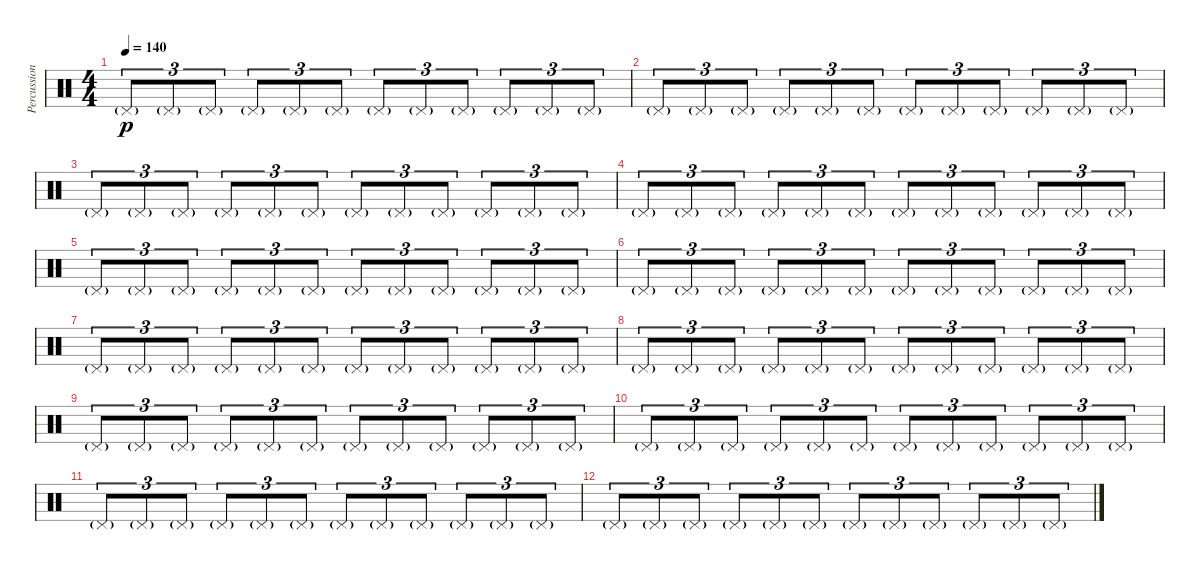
\track ("Percussion" "Percussion") {instrument percussion}
\staff {score}
\articulation defaults
\ts (4 4)
\tempo 140
\clef neutral
\ks c "Pedal Hi-Hat (hit)"{g}.8{tu (3 2) dy p} "Pedal Hi-Hat (hit)"{g}.8{tu (3 2)} "Pedal Hi-Hat (hit)"{g}.8{tu (3 2)} "Pedal Hi-Hat (hit)"{g}.8{tu (3 2)} "Pedal Hi-Hat (hit)"{g}.8{tu (3 2)} "Pedal Hi-Hat (hit)"{g}.8{tu (3 2)} "Pedal Hi-Hat (hit)"{g}.8{tu (3 2)} "Pedal Hi-Hat (hit)"{g}.8{tu (3 2)} "Pedal Hi-Hat (hit)"{g}.8{tu (3 2)} "Pedal Hi-Hat (hit)"{g}.8{tu (3 2)} "Pedal Hi-Hat (hit)"{g}.8{tu (3 2)} "Pedal Hi-Hat (hit)"{g}.8{tu (3 2)}
|
"Pedal Hi-Hat (hit)"{g}.8{tu (3 2)} "Pedal Hi-Hat (hit)"{g}.8{tu (3 2)} "Pedal Hi-Hat (hit)"{g}.8{tu (3 2)} "Pedal Hi-Hat (hit)"{g}.8{tu (3 2)} "Pedal Hi-Hat (hit)"{g}.8{tu (3 2)} "Pedal Hi-Hat (hit)"{g}.8{tu (3 2)} "Pedal Hi-Hat (hit)"{g}.8{tu (3 2)} "Pedal Hi-Hat (hit)"{g}.8{tu (3 2)} "Pedal Hi-Hat (hit)"{g}.8{tu (3 2)} "Pedal Hi-Hat (hit)"{g}.8{tu (3 2)} "Pedal Hi-Hat (hit)"{g}.8{tu (3 2)} "Pedal Hi-Hat (hit)"{g}.8{tu (3 2)} |
"Pedal Hi-Hat (hit)"{g}.8{tu (3 2)} "Pedal Hi-Hat (hit)"{g}.8{tu (3 2)} "Pedal Hi-Hat (hit)"{g}.8{tu (3 2)} "Pedal Hi-Hat (hit)"{g}.8{tu (3 2)} "Pedal Hi-Hat (hit)"{g}.8{tu (3 2)} "Pedal Hi-Hat (hit)"{g}.8{tu (3 2)} "Pedal Hi-Hat (hit)"{g}.8{tu (3 2)} "Pedal Hi-Hat (hit)"{g}.8{tu (3 2)} "Pedal Hi-Hat (hit)"{g}.8{tu (3 2)} "Pedal Hi-Hat (hit)"{g}.8{tu (3 2)} "Pedal Hi-Hat (hit)"{g}.8{tu (3 2)} "Pedal Hi-Hat (hit)"{g}.8{tu (3 2)} |
"Pedal Hi-Hat (hit)"{g}.8{tu (3 2)} "Pedal Hi-Hat (hit)"{g}.8{tu (3 2)} "Pedal Hi-Hat (hit)"{g}.8{tu (3 2)} "Pedal Hi-Hat (hit)"{g}.8{tu (3 2)} "Pedal Hi-Hat (hit)"{g}.8{tu (3 2)} "Pedal Hi-Hat (hit)"{g}.8{tu (3 2)} "Pedal Hi-Hat (hit)"{g}.8{tu (3 2)} "Pedal Hi-Hat (hit)"{g}.8{tu (3 2)} "Pedal Hi-Hat (hit)"{g}.8{tu (3 2)} "Pedal Hi-Hat (hit)"{g}.8{tu (3 2)} "Pedal Hi-Hat (hit)"{g}.8{tu (3 2)} "Pedal Hi-Hat (hit)"{g}.8{tu (3 2)} |
"Pedal Hi-Hat (hit)"{g}.8{tu (3 2)} "Pedal Hi-Hat (hit)"{g}.8{tu (3 2)} "Pedal Hi-Hat (hit)"{g}.8{tu (3 2)} "Pedal Hi-Hat (hit)"{g}.8{tu (3 2)} "Pedal Hi-Hat (hit)"{g}.8{tu (3 2)} "Pedal Hi-Hat (hit)"{g}.8{tu (3 2)} "Pedal Hi-Hat (hit)"{g}.8{tu (3 2)} "Pedal Hi-Hat (hit)"{g}.8{tu (3 2)} "Pedal Hi-Hat (hit)"{g}.8{tu (3 2)} "Pedal Hi-Hat (hit)"{g}.8{tu (3 2)} "Pedal Hi-Hat (hit)"{g}.8{tu (3 2)} "Pedal Hi-Hat (hit)"{g}.8{tu (3 2)} |
"Pedal Hi-Hat (hit)"{g}.8{tu (3 2)} "Pedal Hi-Hat (hit)"{g}.8{tu (3 2)} "Pedal Hi-Hat (hit)"{g}.8{tu (3 2)} "Pedal Hi-Hat (hit)"{g}.8{tu (3 2)} "Pedal Hi-Hat (hit)"{g}.8{tu (3 2)} "Pedal Hi-Hat (hit)"{g}.8{tu (3 2)} "Pedal Hi-Hat (hit)"{g}.8{tu (3 2)} "Pedal Hi-Hat (hit)"{g}.8{tu (3 2)} "Pedal Hi-Hat (hit)"{g}.8{tu (3 2)} "Pedal Hi-Hat (hit)"{g}.8{tu (3 2)} "Pedal Hi-Hat (hit)"{g}.8{tu (3 2)} "Pedal Hi-Hat (hit)"{g}.8{tu (3 2)} |
"Pedal Hi-Hat (hit)"{g}.8{tu (3 2)} "Pedal Hi-Hat (hit)"{g}.8{tu (3 2)} "Pedal Hi-Hat (hit)"{g}.8{tu (3 2)} "Pedal Hi-Hat (hit)"{g}.8{tu (3 2)} "Pedal Hi-Hat (hit)"{g}.8{tu (3 2)} "Pedal Hi-Hat (hit)"{g}.8{tu (3 2)} "Pedal Hi-Hat (hit)"{g}.8{tu (3 2)} "Pedal Hi-Hat (hit)"{g}.8{tu (3 2)} "Pedal Hi-Hat (hit)"{g}.8{tu (3 2)} "Pedal Hi-Hat (hit)"{g}.8{tu (3 2)} "Pedal Hi-Hat (hit)"{g}.8{tu (3 2)} "Pedal Hi-Hat (hit)"{g}.8{tu (3 2)} |
"Pedal Hi-Hat (hit)"{g}.8{tu (3 2)} "Pedal Hi-Hat (hit)"{g}.8{tu (3 2)} "Pedal Hi-Hat (hit)"{g}.8{tu (3 2)} "Pedal Hi-Hat (hit)"{g}.8{tu (3 2)} "Pedal Hi-Hat (hit)"{g}.8{tu (3 2)} "Pedal Hi-Hat (hit)"{g}.8{tu (3 2)} "Pedal Hi-Hat (hit)"{g}.8{tu (3 2)} "Pedal Hi-Hat (hit)"{g}.8{tu (3 2)} "Pedal Hi-Hat (hit)"{g}.8{tu (3 2)} "Pedal Hi-Hat (hit)"{g}.8{tu (3 2)} "Pedal Hi-Hat (hit)"{g}.8{tu (3 2)} "Pedal Hi-Hat (hit)"{g}.8{tu (3 2)} |
"Pedal Hi-Hat (hit)"{g}.8{tu (3 2)} "Pedal Hi-Hat (hit)"{g}.8{tu (3 2)} "Pedal Hi-Hat (hit)"{g}.8{tu (3 2)} "Pedal Hi-Hat (hit)"{g}.8{tu (3 2)} "Pedal Hi-Hat (hit)"{g}.8{tu (3 2)} "Pedal Hi-Hat (hit)"{g}.8{tu (3 2)} "Pedal Hi-Hat (hit)"{g}.8{tu (3 2)} "Pedal Hi-Hat (hit)"{g}.8{tu (3 2)} "Pedal Hi-Hat (hit)"{g}.8{tu (3 2)} "Pedal Hi-Hat (hit)"{g}.8{tu (3 2)} "Pedal Hi-Hat (hit)"{g}.8{tu (3 2)} "Pedal Hi-Hat (hit)"{g}.8{tu (3 2)} |
"Pedal Hi-Hat (hit)"{g}.8{tu (3 2)} "Pedal Hi-Hat (hit)"{g}.8{tu (3 2)} "Pedal Hi-Hat (hit)"{g}.8{tu (3 2)} "Pedal Hi-Hat (hit)"{g}.8{tu (3 2)} "Pedal Hi-Hat (hit)"{g}.8{tu (3 2)} "Pedal Hi-Hat (hit)"{g}.8{tu (3 2)} "Pedal Hi-Hat (hit)"{g}.8{tu (3 2)} "Pedal Hi-Hat (hit)"{g}.8{tu (3 2)} "Pedal Hi-Hat (hit)"{g}.8{tu (3 2)} "Pedal Hi-Hat (hit)"{g}.8{tu (3 2)} "Pedal Hi-Hat (hit)"{g}.8{tu (3 2)} "Pedal Hi-Hat (hit)"{g}.8{tu (3 2)} |
"Pedal Hi-Hat (hit)"{g}.8{tu (3 2)} "Pedal Hi-Hat (hit)"{g}.8{tu (3 2)} "Pedal Hi-Hat (hit)"{g}.8{tu (3 2)} "Pedal Hi-Hat (hit)"{g}.8{tu (3 2)} "Pedal Hi-Hat (hit)"{g}.8{tu (3 2)} "Pedal Hi-Hat (hit)"{g}.8{tu (3 2)} "Pedal Hi-Hat (hit)"{g}.8{tu (3 2)} "Pedal Hi-Hat (hit)"{g}.8{tu (3 2)} "Pedal Hi-Hat (hit)"{g}.8{tu (3 2)} "Pedal Hi-Hat (hit)"{g}.8{tu (3 2)} "Pedal Hi-Hat (hit)"{g}.8{tu (3 2)} "Pedal Hi-Hat (hit)"{g}.8{tu (3 2)} |
"Pedal Hi-Hat (hit)"{g}.8{tu (3 2)} "Pedal Hi-Hat (hit)"{g}.8{tu (3 2)} "Pedal Hi-Hat (hit)"{g}.8{tu (3 2)} "Pedal Hi-Hat (hit)"{g}.8{tu (3 2)} "Pedal Hi-Hat (hit)"{g}.8{tu (3 2)} "Pedal Hi-Hat (hit)"{g}.8{tu (3 2)} "Pedal Hi-Hat (hit)"{g}.8{tu (3 2)} "Pedal Hi-Hat (hit)"{g}.8{tu (3 2)} "Pedal Hi-Hat (hit)"{g}.8{tu (3 2)} "Pedal Hi-Hat (hit)"{g}.8{tu (3 2)} "Pedal Hi-Hat (hit)"{g}.8{tu (3 2)} "Pedal Hi-Hat (hit)"{g}.8{tu (3 2)}
